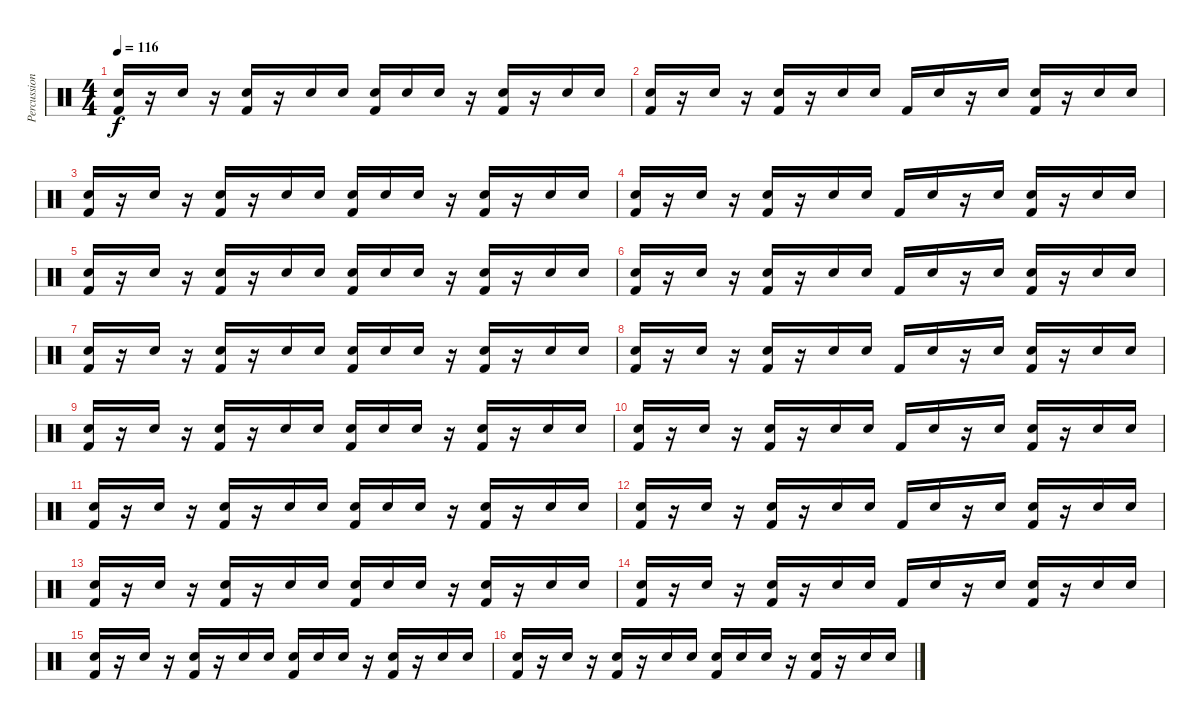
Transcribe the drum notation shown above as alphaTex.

\track ("Percussions" "Percussion") {instrument percussion}
\staff {score}
\articulation defaults
\ts (4 4)
\tempo 116
\clef neutral
\ks c
("Snare (hit) 2" "Kick (hit) 2").16{dy f} r.16 "Snare (hit) 2".16 r.16 ("Snare (hit) 2" "Kick (hit) 2").16 r.16 "Snare (hit) 2".16 "Snare (hit) 2".16 ("Snare (hit) 2" "Kick (hit) 2").16 "Snare (hit) 2".16 "Snare (hit) 2".16 r.16 ("Snare (hit) 2" "Kick (hit) 2").16 r.16 "Snare (hit) 2".16 "Snare (hit) 2".16 |
("Snare (hit) 2" "Kick (hit) 2").16 r.16 "Snare (hit) 2".16 r.16 ("Snare (hit) 2" "Kick (hit) 2").16 r.16 "Snare (hit) 2".16 "Snare (hit) 2".16 "Kick (hit) 2".16 "Snare (hit) 2".16 r.16 "Snare (hit) 2".16 ("Snare (hit) 2" "Kick (hit) 2").16 r.16 "Snare (hit) 2".16 "Snare (hit) 2".16 |
("Snare (hit) 2" "Kick (hit) 2").16 r.16 "Snare (hit) 2".16 r.16 ("Snare (hit) 2" "Kick (hit) 2").16 r.16 "Snare (hit) 2".16 "Snare (hit) 2".16 ("Snare (hit) 2" "Kick (hit) 2").16 "Snare (hit) 2".16 "Snare (hit) 2".16 r.16 ("Snare (hit) 2" "Kick (hit) 2").16 r.16 "Snare (hit) 2".16 "Snare (hit) 2".16 |
("Snare (hit) 2" "Kick (hit) 2").16 r.16 "Snare (hit) 2".16 r.16 ("Snare (hit) 2" "Kick (hit) 2").16 r.16 "Snare (hit) 2".16 "Snare (hit) 2".16 "Kick (hit) 2".16 "Snare (hit) 2".16 r.16 "Snare (hit) 2".16 ("Snare (hit) 2" "Kick (hit) 2").16 r.16 "Snare (hit) 2".16 "Snare (hit) 2".16 |
("Snare (hit) 2" "Kick (hit) 2").16 r.16 "Snare (hit) 2".16 r.16 ("Snare (hit) 2" "Kick (hit) 2").16 r.16 "Snare (hit) 2".16 "Snare (hit) 2".16 ("Snare (hit) 2" "Kick (hit) 2").16 "Snare (hit) 2".16 "Snare (hit) 2".16 r.16 ("Snare (hit) 2" "Kick (hit) 2").16 r.16 "Snare (hit) 2".16 "Snare (hit) 2".16 |
("Snare (hit) 2" "Kick (hit) 2").16 r.16 "Snare (hit) 2".16 r.16 ("Snare (hit) 2" "Kick (hit) 2").16 r.16 "Snare (hit) 2".16 "Snare (hit) 2".16 "Kick (hit) 2".16 "Snare (hit) 2".16 r.16 "Snare (hit) 2".16 ("Snare (hit) 2" "Kick (hit) 2").16 r.16 "Snare (hit) 2".16 "Snare (hit) 2".16 |
("Snare (hit) 2" "Kick (hit) 2").16 r.16 "Snare (hit) 2".16 r.16 ("Snare (hit) 2" "Kick (hit) 2").16 r.16 "Snare (hit) 2".16 "Snare (hit) 2".16 ("Snare (hit) 2" "Kick (hit) 2").16 "Snare (hit) 2".16 "Snare (hit) 2".16 r.16 ("Snare (hit) 2" "Kick (hit) 2").16 r.16 "Snare (hit) 2".16 "Snare (hit) 2".16 |
("Snare (hit) 2" "Kick (hit) 2").16 r.16 "Snare (hit) 2".16 r.16 ("Snare (hit) 2" "Kick (hit) 2").16 r.16 "Snare (hit) 2".16 "Snare (hit) 2".16 "Kick (hit) 2".16 "Snare (hit) 2".16 r.16 "Snare (hit) 2".16 ("Snare (hit) 2" "Kick (hit) 2").16 r.16 "Snare (hit) 2".16 "Snare (hit) 2".16 |
("Snare (hit) 2" "Kick (hit) 2").16 r.16 "Snare (hit) 2".16 r.16 ("Snare (hit) 2" "Kick (hit) 2").16 r.16 "Snare (hit) 2".16 "Snare (hit) 2".16 ("Snare (hit) 2" "Kick (hit) 2").16 "Snare (hit) 2".16 "Snare (hit) 2".16 r.16 ("Snare (hit) 2" "Kick (hit) 2").16 r.16 "Snare (hit) 2".16 "Snare (hit) 2".16 |
("Snare (hit) 2" "Kick (hit) 2").16 r.16 "Snare (hit) 2".16 r.16 ("Snare (hit) 2" "Kick (hit) 2").16 r.16 "Snare (hit) 2".16 "Snare (hit) 2".16 "Kick (hit) 2".16 "Snare (hit) 2".16 r.16 "Snare (hit) 2".16 ("Snare (hit) 2" "Kick (hit) 2").16 r.16 "Snare (hit) 2".16 "Snare (hit) 2".16 |
("Snare (hit) 2" "Kick (hit) 2").16 r.16 "Snare (hit) 2".16 r.16 ("Snare (hit) 2" "Kick (hit) 2").16 r.16 "Snare (hit) 2".16 "Snare (hit) 2".16 ("Snare (hit) 2" "Kick (hit) 2").16 "Snare (hit) 2".16 "Snare (hit) 2".16 r.16 ("Snare (hit) 2" "Kick (hit) 2").16 r.16 "Snare (hit) 2".16 "Snare (hit) 2".16 |
("Snare (hit) 2" "Kick (hit) 2").16 r.16 "Snare (hit) 2".16 r.16 ("Snare (hit) 2" "Kick (hit) 2").16 r.16 "Snare (hit) 2".16 "Snare (hit) 2".16 "Kick (hit) 2".16 "Snare (hit) 2".16 r.16 "Snare (hit) 2".16 ("Snare (hit) 2" "Kick (hit) 2").16 r.16 "Snare (hit) 2".16 "Snare (hit) 2".16 |
("Snare (hit) 2" "Kick (hit) 2").16 r.16 "Snare (hit) 2".16 r.16 ("Snare (hit) 2" "Kick (hit) 2").16 r.16 "Snare (hit) 2".16 "Snare (hit) 2".16 ("Snare (hit) 2" "Kick (hit) 2").16 "Snare (hit) 2".16 "Snare (hit) 2".16 r.16 ("Snare (hit) 2" "Kick (hit) 2").16 r.16 "Snare (hit) 2".16 "Snare (hit) 2".16 |
("Snare (hit) 2" "Kick (hit) 2").16 r.16 "Snare (hit) 2".16 r.16 ("Snare (hit) 2" "Kick (hit) 2").16 r.16 "Snare (hit) 2".16 "Snare (hit) 2".16 "Kick (hit) 2".16 "Snare (hit) 2".16 r.16 "Snare (hit) 2".16 ("Snare (hit) 2" "Kick (hit) 2").16 r.16 "Snare (hit) 2".16 "Snare (hit) 2".16 |
("Snare (hit) 2" "Kick (hit) 2").16 r.16 "Snare (hit) 2".16 r.16 ("Snare (hit) 2" "Kick (hit) 2").16 r.16 "Snare (hit) 2".16 "Snare (hit) 2".16 ("Snare (hit) 2" "Kick (hit) 2").16 "Snare (hit) 2".16 "Snare (hit) 2".16 r.16 ("Snare (hit) 2" "Kick (hit) 2").16 r.16 "Snare (hit) 2".16 "Snare (hit) 2".16 |
("Snare (hit) 2" "Kick (hit) 2").16 r.16 "Snare (hit) 2".16 r.16 ("Snare (hit) 2" "Kick (hit) 2").16 r.16 "Snare (hit) 2".16 "Snare (hit) 2".16 ("Snare (hit) 2" "Kick (hit) 2").16 "Snare (hit) 2".16 "Snare (hit) 2".16 r.16 ("Snare (hit) 2" "Kick (hit) 2").16 r.16 "Snare (hit) 2".16 "Snare (hit) 2".16
